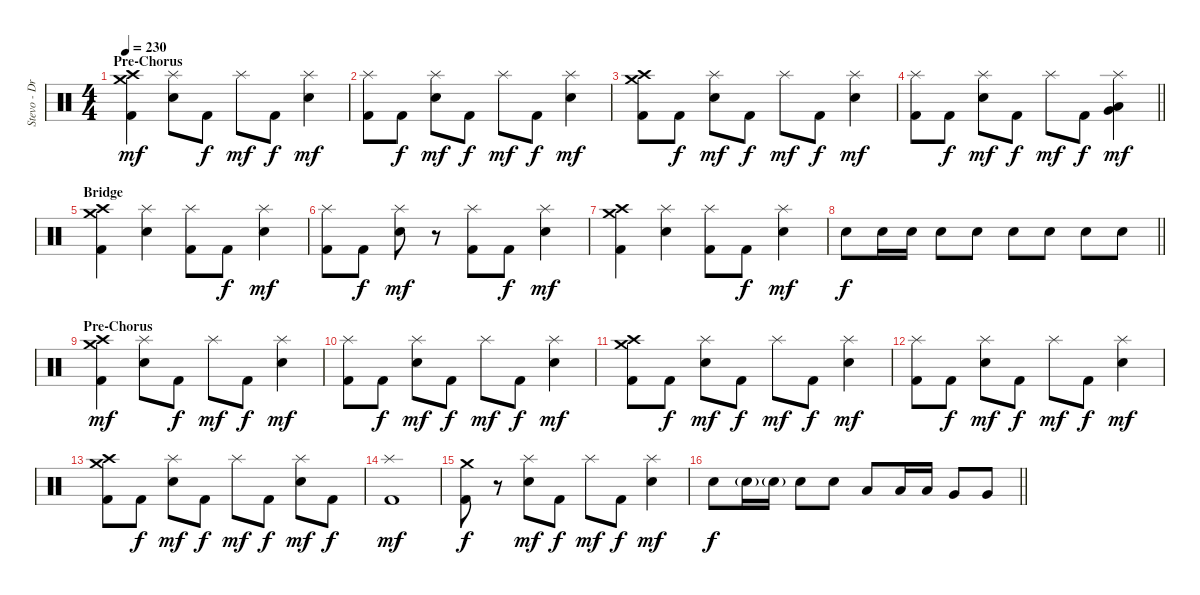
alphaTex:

\track ("Stevo - Drums" "Stevo - Dr") {instrument percussion}
\staff {score}
\articulation defaults
\ts (4 4)
\section ("" "Pre-Chorus")
\tempo 230
\clef neutral
\ks c
("Crash high (hit)" "Crash medium (hit)" "Kick (hit) 2").4{dy mf} ("Splash (hit)" "Electric Snare (hit)").8 "Kick (hit) 2".8{dy f} "Splash (hit)".8{dy mf} "Kick (hit) 2".8{dy f} ("Splash (hit)" "Electric Snare (hit)").4{dy mf} |
("Splash (hit)" "Kick (hit) 2").8 "Kick (hit) 2".8{dy f} ("Splash (hit)" "Electric Snare (hit)").8{dy mf} "Kick (hit) 2".8{dy f} "Splash (hit)".8{dy mf} "Kick (hit) 2".8{dy f} ("Splash (hit)" "Electric Snare (hit)").4{dy mf} |
("Crash high (hit)" "Crash medium (hit)" "Kick (hit) 2").8 "Kick (hit) 2".8{dy f} ("Splash (hit)" "Electric Snare (hit)").8{dy mf} "Kick (hit) 2".8{dy f} "Splash (hit)".8{dy mf} "Kick (hit) 2".8{dy f} ("Splash (hit)" "Electric Snare (hit)").4{dy mf} |
\barLineRight lightlight
("Splash (hit)" "Kick (hit) 2").8 "Kick (hit) 2".8{dy f} ("Splash (hit)" "Electric Snare (hit)").8{dy mf} "Kick (hit) 2".8{dy f} "Splash (hit)".8{dy mf} "Kick (hit) 2".8{dy f} ("Splash (hit)" "Very Low Tom (hit)" "Low Tom (hit)").4{dy mf} |
\section ("" "Bridge")
("Crash high (hit)" "Crash medium (hit)" "Kick (hit) 2").4 ("Splash (hit)" "Electric Snare (hit)").4 ("Splash (hit)" "Kick (hit) 2").8 "Kick (hit) 2".8{dy f} ("Splash (hit)" "Electric Snare (hit)").4{dy mf} |
("Splash (hit)" "Kick (hit) 2").8 "Kick (hit) 2".8{dy f} ("Splash (hit)" "Electric Snare (hit)").8{dy mf} r.8 ("Splash (hit)" "Kick (hit) 2").8 "Kick (hit) 2".8{dy f} ("Splash (hit)" "Electric Snare (hit)").4{dy mf} |
("Crash high (hit)" "Crash medium (hit)" "Kick (hit) 2").4 ("Splash (hit)" "Electric Snare (hit)").4 ("Splash (hit)" "Kick (hit) 2").8 "Kick (hit) 2".8{dy f} ("Splash (hit)" "Electric Snare (hit)").4{dy mf} |
\barLineRight lightlight "Electric Snare (hit)".8{dy f} "Electric Snare (hit)".16 "Electric Snare (hit)".16 "Electric Snare (hit)".8 "Electric Snare (hit)".8 "Electric Snare (hit)".8 "Electric Snare (hit)".8 "Electric Snare (hit)".8 "Electric Snare (hit)".8
|
\section ("" "Pre-Chorus")
("Crash high (hit)" "Crash medium (hit)" "Kick (hit) 2").4{dy mf} ("Splash (hit)" "Electric Snare (hit)").8 "Kick (hit) 2".8{dy f} "Splash (hit)".8{dy mf} "Kick (hit) 2".8{dy f} ("Splash (hit)" "Electric Snare (hit)").4{dy mf} |
("Splash (hit)" "Kick (hit) 2").8 "Kick (hit) 2".8{dy f} ("Splash (hit)" "Electric Snare (hit)").8{dy mf} "Kick (hit) 2".8{dy f} "Splash (hit)".8{dy mf} "Kick (hit) 2".8{dy f} ("Splash (hit)" "Electric Snare (hit)").4{dy mf} |
("Crash high (hit)" "Crash medium (hit)" "Kick (hit) 2").8 "Kick (hit) 2".8{dy f} ("Splash (hit)" "Electric Snare (hit)").8{dy mf} "Kick (hit) 2".8{dy f} "Splash (hit)".8{dy mf} "Kick (hit) 2".8{dy f} ("Splash (hit)" "Electric Snare (hit)").4{dy mf} |
("Splash (hit)" "Kick (hit) 2").8 "Kick (hit) 2".8{dy f} ("Splash (hit)" "Electric Snare (hit)").8{dy mf} "Kick (hit) 2".8{dy f} "Splash (hit)".8{dy mf} "Kick (hit) 2".8{dy f} ("Splash (hit)" "Electric Snare (hit)").4{dy mf} |
("Crash high (hit)" "Crash medium (hit)" "Kick (hit) 2").8 "Kick (hit) 2".8{dy f} ("Splash (hit)" "Electric Snare (hit)").8{dy mf} "Kick (hit) 2".8{dy f} "Splash (hit)".8{dy mf} "Kick (hit) 2".8{dy f} ("Splash (hit)" "Electric Snare (hit)").8{dy mf} "Kick (hit) 2".8{dy f} |
("Splash (hit)" "Kick (hit) 2").1{dy mf} |
("Crash medium (hit)" "Kick (hit) 2").8{dy f} r.8 ("Splash (hit)" "Electric Snare (hit)").8{dy mf} "Kick (hit) 2".8{dy f} "Splash (hit)".8{dy mf} "Kick (hit) 2".8{dy f} ("Splash (hit)" "Electric Snare (hit)").4{dy mf} |
\barLineRight lightlight "Electric Snare (hit)".8{dy f} "Electric Snare (hit)"{g}.16 "Electric Snare (hit)"{g}.16 "Electric Snare (hit)".8 "Electric Snare (hit)".8 "Low Tom (hit)".8 "Low Tom (hit)".16 "Low Tom (hit)".16 "Very Low Tom (hit)".8 "Very Low Tom (hit)".8
